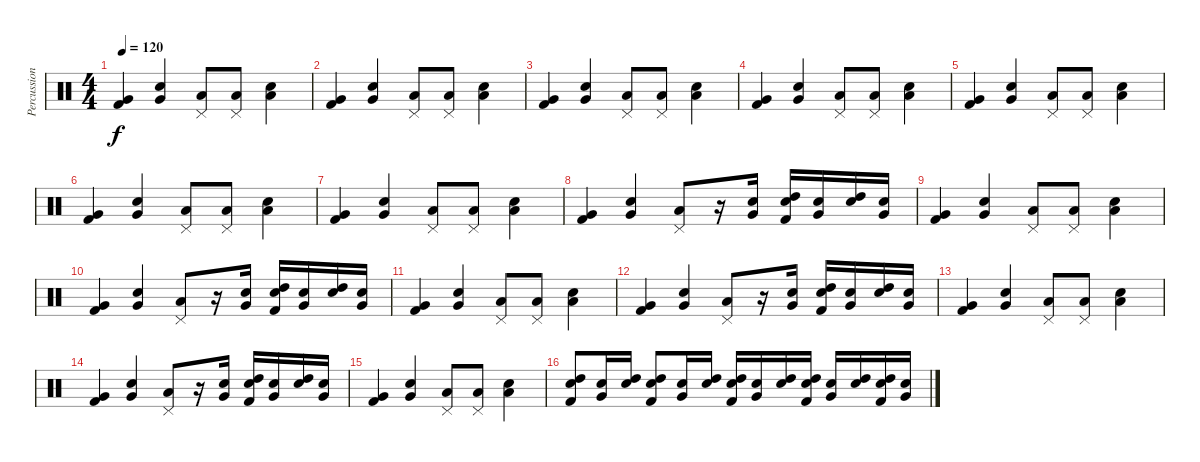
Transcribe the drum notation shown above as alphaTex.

\track ("Percussion" "Percussion") {instrument percussion}
\staff {score}
\articulation defaults
\ts (4 4)
\tempo 120
\clef neutral
\ks c
("Very Low Tom (hit)" "Kick (hit) 2").4{dy f} ("Very Low Tom (hit)" "Snare (hit) 2").4 ("Pedal Hi-Hat (hit)" "Low Tom (hit)").8 ("Pedal Hi-Hat (hit)" "Low Tom (hit)").8 ("Low Tom (hit)" "Snare (hit) 2").4 |
("Very Low Tom (hit)" "Kick (hit) 2").4 ("Very Low Tom (hit)" "Snare (hit) 2").4 ("Pedal Hi-Hat (hit)" "Low Tom (hit)").8 ("Pedal Hi-Hat (hit)" "Low Tom (hit)").8 ("Low Tom (hit)" "Snare (hit) 2").4 |
("Very Low Tom (hit)" "Kick (hit) 2").4 ("Very Low Tom (hit)" "Snare (hit) 2").4 ("Pedal Hi-Hat (hit)" "Low Tom (hit)").8 ("Pedal Hi-Hat (hit)" "Low Tom (hit)").8 ("Low Tom (hit)" "Snare (hit) 2").4 |
("Very Low Tom (hit)" "Kick (hit) 2").4 ("Very Low Tom (hit)" "Snare (hit) 2").4 ("Pedal Hi-Hat (hit)" "Low Tom (hit)").8 ("Pedal Hi-Hat (hit)" "Low Tom (hit)").8 ("Low Tom (hit)" "Snare (hit) 2").4 |
("Very Low Tom (hit)" "Kick (hit) 2").4 ("Very Low Tom (hit)" "Snare (hit) 2").4 ("Pedal Hi-Hat (hit)" "Low Tom (hit)").8 ("Pedal Hi-Hat (hit)" "Low Tom (hit)").8 ("Low Tom (hit)" "Snare (hit) 2").4 |
("Very Low Tom (hit)" "Kick (hit) 2").4 ("Very Low Tom (hit)" "Snare (hit) 2").4 ("Pedal Hi-Hat (hit)" "Low Tom (hit)").8 ("Pedal Hi-Hat (hit)" "Low Tom (hit)").8 ("Low Tom (hit)" "Snare (hit) 2").4 |
("Very Low Tom (hit)" "Kick (hit) 2").4 ("Very Low Tom (hit)" "Snare (hit) 2").4 ("Pedal Hi-Hat (hit)" "Low Tom (hit)").8 ("Pedal Hi-Hat (hit)" "Low Tom (hit)").8 ("Low Tom (hit)" "Snare (hit) 2").4 |
("Very Low Tom (hit)" "Kick (hit) 2").4 ("Very Low Tom (hit)" "Snare (hit) 2").4 ("Pedal Hi-Hat (hit)" "Low Tom (hit)").8 r.16 ("Very Low Tom (hit)" "Snare (hit) 2").16 ("High Tom (hit)" "Snare (hit) 2" "Kick (hit) 2").16 ("Very Low Tom (hit)" "Snare (hit) 2").16 ("High Tom (hit)" "Snare (hit) 2").16 ("Very Low Tom (hit)" "Snare (hit) 2").16 |
("Very Low Tom (hit)" "Kick (hit) 2").4 ("Very Low Tom (hit)" "Snare (hit) 2").4 ("Pedal Hi-Hat (hit)" "Low Tom (hit)").8 ("Pedal Hi-Hat (hit)" "Low Tom (hit)").8 ("Low Tom (hit)" "Snare (hit) 2").4 |
("Very Low Tom (hit)" "Kick (hit) 2").4 ("Very Low Tom (hit)" "Snare (hit) 2").4 ("Pedal Hi-Hat (hit)" "Low Tom (hit)").8 r.16 ("Very Low Tom (hit)" "Snare (hit) 2").16 ("High Tom (hit)" "Snare (hit) 2" "Kick (hit) 2").16 ("Very Low Tom (hit)" "Snare (hit) 2").16 ("High Tom (hit)" "Snare (hit) 2").16 ("Very Low Tom (hit)" "Snare (hit) 2").16 |
("Very Low Tom (hit)" "Kick (hit) 2").4 ("Very Low Tom (hit)" "Snare (hit) 2").4 ("Pedal Hi-Hat (hit)" "Low Tom (hit)").8 ("Pedal Hi-Hat (hit)" "Low Tom (hit)").8 ("Low Tom (hit)" "Snare (hit) 2").4 |
("Very Low Tom (hit)" "Kick (hit) 2").4 ("Very Low Tom (hit)" "Snare (hit) 2").4 ("Pedal Hi-Hat (hit)" "Low Tom (hit)").8 r.16 ("Very Low Tom (hit)" "Snare (hit) 2").16 ("High Tom (hit)" "Snare (hit) 2" "Kick (hit) 2").16 ("Very Low Tom (hit)" "Snare (hit) 2").16 ("High Tom (hit)" "Snare (hit) 2").16 ("Very Low Tom (hit)" "Snare (hit) 2").16 |
("Very Low Tom (hit)" "Kick (hit) 2").4 ("Very Low Tom (hit)" "Snare (hit) 2").4 ("Pedal Hi-Hat (hit)" "Low Tom (hit)").8 ("Pedal Hi-Hat (hit)" "Low Tom (hit)").8 ("Low Tom (hit)" "Snare (hit) 2").4 |
("Very Low Tom (hit)" "Kick (hit) 2").4 ("Very Low Tom (hit)" "Snare (hit) 2").4 ("Pedal Hi-Hat (hit)" "Low Tom (hit)").8 r.16 ("Very Low Tom (hit)" "Snare (hit) 2").16 ("High Tom (hit)" "Snare (hit) 2" "Kick (hit) 2").16 ("Very Low Tom (hit)" "Snare (hit) 2").16 ("High Tom (hit)" "Snare (hit) 2").16 ("Very Low Tom (hit)" "Snare (hit) 2").16 |
("Very Low Tom (hit)" "Kick (hit) 2").4 ("Very Low Tom (hit)" "Snare (hit) 2").4 ("Pedal Hi-Hat (hit)" "Low Tom (hit)").8 ("Pedal Hi-Hat (hit)" "Low Tom (hit)").8 ("Low Tom (hit)" "Snare (hit) 2").4 |
("High Tom (hit)" "Snare (hit) 2" "Kick (hit) 2").8 ("Very Low Tom (hit)" "Snare (hit) 2").16 ("High Tom (hit)" "Snare (hit) 2").16 ("High Tom (hit)" "Snare (hit) 2" "Kick (hit) 2").8 ("Very Low Tom (hit)" "Snare (hit) 2").16 ("High Tom (hit)" "Snare (hit) 2").16 ("High Tom (hit)" "Snare (hit) 2" "Kick (hit) 2").16 ("Very Low Tom (hit)" "Snare (hit) 2").16 ("High Tom (hit)" "Snare (hit) 2").16 ("High Tom (hit)" "Snare (hit) 2" "Kick (hit) 2").16 ("Very Low Tom (hit)" "Snare (hit) 2").16 ("High Tom (hit)" "Snare (hit) 2").16 ("High Tom (hit)" "Snare (hit) 2" "Kick (hit) 2").16 ("Very Low Tom (hit)" "Snare (hit) 2").16
